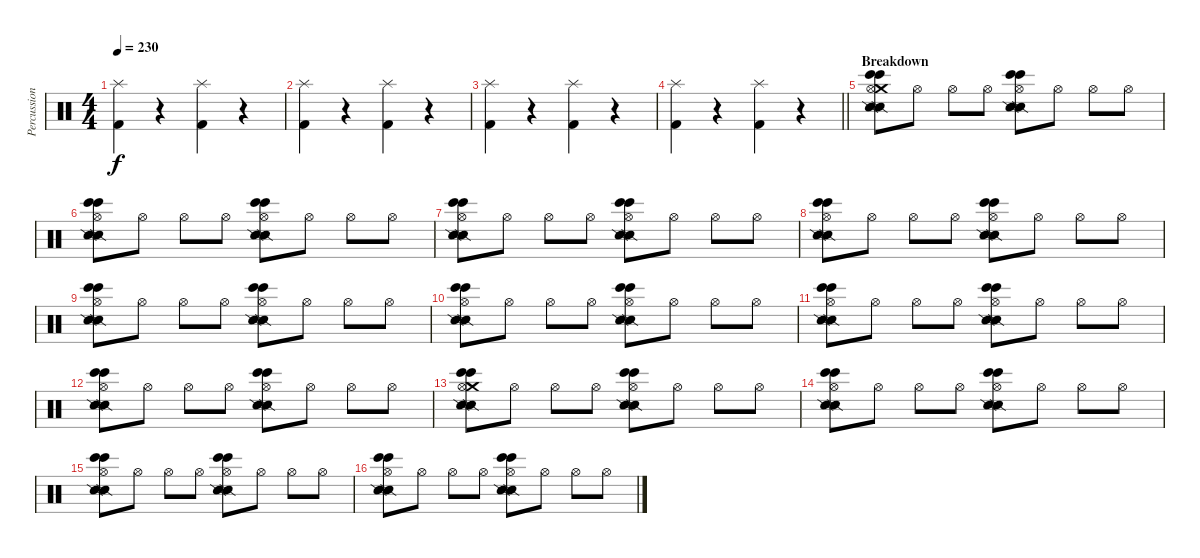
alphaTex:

\track ("Percussion" "Percussion") {instrument percussion}
\staff {score}
\articulation defaults
\ts (4 4)
\tempo 230
\clef neutral
\ks c
("Kick (hit) 2" "Splash (hit)").4{dy f} r.4 ("Kick (hit) 2" "Splash (hit)").4 r.4 |
("Kick (hit) 2" "Splash (hit)").4 r.4 ("Kick (hit) 2" "Splash (hit)").4 r.4 |
("Kick (hit) 2" "Splash (hit)").4 r.4 ("Kick (hit) 2" "Splash (hit)").4 r.4 |
\barLineRight lightlight
("Kick (hit) 2" "Splash (hit)").4 r.4 ("Kick (hit) 2" "Splash (hit)").4 r.4 |
\section ("" "Breakdown")
("Snare (side stick) 2" "Bongo High (hit)" "Snare (side stick) 2" "Bongo High (hit)" "Crash medium (hit)" "Hi-Hat (open)").8{volume 6} "Hi-Hat (open)".8 "Hi-Hat (open)".8 "Hi-Hat (open)".8 ("Snare (side stick) 2" "Bongo High (hit)" "Snare (side stick) 2" "Bongo High (hit)" "Hi-Hat (open)").8 "Hi-Hat (open)".8 "Hi-Hat (open)".8 "Hi-Hat (open)".8 |
("Snare (side stick) 2" "Bongo High (hit)" "Snare (side stick) 2" "Bongo High (hit)" "Hi-Hat (open)").8 "Hi-Hat (open)".8 "Hi-Hat (open)".8 "Hi-Hat (open)".8 ("Snare (side stick) 2" "Bongo High (hit)" "Snare (side stick) 2" "Bongo High (hit)" "Hi-Hat (open)").8 "Hi-Hat (open)".8 "Hi-Hat (open)".8 "Hi-Hat (open)".8 |
("Snare (side stick) 2" "Bongo High (hit)" "Snare (side stick) 2" "Bongo High (hit)" "Hi-Hat (open)").8 "Hi-Hat (open)".8 "Hi-Hat (open)".8 "Hi-Hat (open)".8 ("Snare (side stick) 2" "Bongo High (hit)" "Snare (side stick) 2" "Bongo High (hit)" "Hi-Hat (open)").8 "Hi-Hat (open)".8 "Hi-Hat (open)".8 "Hi-Hat (open)".8 |
("Snare (side stick) 2" "Bongo High (hit)" "Snare (side stick) 2" "Bongo High (hit)" "Hi-Hat (open)").8 "Hi-Hat (open)".8 "Hi-Hat (open)".8 "Hi-Hat (open)".8 ("Snare (side stick) 2" "Bongo High (hit)" "Snare (side stick) 2" "Bongo High (hit)" "Hi-Hat (open)").8 "Hi-Hat (open)".8 "Hi-Hat (open)".8 "Hi-Hat (open)".8 |
("Snare (side stick) 2" "Bongo High (hit)" "Snare (side stick) 2" "Bongo High (hit)" "Hi-Hat (open)").8 "Hi-Hat (open)".8 "Hi-Hat (open)".8 "Hi-Hat (open)".8 ("Snare (side stick) 2" "Bongo High (hit)" "Snare (side stick) 2" "Bongo High (hit)" "Hi-Hat (open)").8 "Hi-Hat (open)".8 "Hi-Hat (open)".8 "Hi-Hat (open)".8 |
("Snare (side stick) 2" "Bongo High (hit)" "Snare (side stick) 2" "Bongo High (hit)" "Hi-Hat (open)").8 "Hi-Hat (open)".8 "Hi-Hat (open)".8 "Hi-Hat (open)".8 ("Snare (side stick) 2" "Bongo High (hit)" "Snare (side stick) 2" "Bongo High (hit)" "Hi-Hat (open)").8 "Hi-Hat (open)".8 "Hi-Hat (open)".8 "Hi-Hat (open)".8 |
("Snare (side stick) 2" "Bongo High (hit)" "Snare (side stick) 2" "Bongo High (hit)" "Hi-Hat (open)").8 "Hi-Hat (open)".8 "Hi-Hat (open)".8 "Hi-Hat (open)".8 ("Snare (side stick) 2" "Bongo High (hit)" "Snare (side stick) 2" "Bongo High (hit)" "Hi-Hat (open)").8 "Hi-Hat (open)".8 "Hi-Hat (open)".8 "Hi-Hat (open)".8 |
("Snare (side stick) 2" "Bongo High (hit)" "Snare (side stick) 2" "Bongo High (hit)" "Hi-Hat (open)").8 "Hi-Hat (open)".8 "Hi-Hat (open)".8 "Hi-Hat (open)".8 ("Snare (side stick) 2" "Bongo High (hit)" "Snare (side stick) 2" "Bongo High (hit)" "Hi-Hat (open)").8 "Hi-Hat (open)".8 "Hi-Hat (open)".8 "Hi-Hat (open)".8 |
("Snare (side stick) 2" "Bongo High (hit)" "Snare (side stick) 2" "Bongo High (hit)" "Crash medium (hit)" "Hi-Hat (open)").8 "Hi-Hat (open)".8 "Hi-Hat (open)".8 "Hi-Hat (open)".8 ("Snare (side stick) 2" "Bongo High (hit)" "Snare (side stick) 2" "Bongo High (hit)" "Hi-Hat (open)").8 "Hi-Hat (open)".8 "Hi-Hat (open)".8 "Hi-Hat (open)".8 |
("Snare (side stick) 2" "Bongo High (hit)" "Snare (side stick) 2" "Bongo High (hit)" "Hi-Hat (open)").8 "Hi-Hat (open)".8 "Hi-Hat (open)".8 "Hi-Hat (open)".8 ("Snare (side stick) 2" "Bongo High (hit)" "Snare (side stick) 2" "Bongo High (hit)" "Hi-Hat (open)").8 "Hi-Hat (open)".8 "Hi-Hat (open)".8 "Hi-Hat (open)".8 |
("Snare (side stick) 2" "Bongo High (hit)" "Snare (side stick) 2" "Bongo High (hit)" "Hi-Hat (open)").8 "Hi-Hat (open)".8 "Hi-Hat (open)".8 "Hi-Hat (open)".8 ("Snare (side stick) 2" "Bongo High (hit)" "Snare (side stick) 2" "Bongo High (hit)" "Hi-Hat (open)").8 "Hi-Hat (open)".8 "Hi-Hat (open)".8 "Hi-Hat (open)".8 |
("Snare (side stick) 2" "Bongo High (hit)" "Snare (side stick) 2" "Bongo High (hit)" "Hi-Hat (open)").8 "Hi-Hat (open)".8 "Hi-Hat (open)".8 "Hi-Hat (open)".8 ("Snare (side stick) 2" "Bongo High (hit)" "Snare (side stick) 2" "Bongo High (hit)" "Hi-Hat (open)").8 "Hi-Hat (open)".8 "Hi-Hat (open)".8 "Hi-Hat (open)".8
